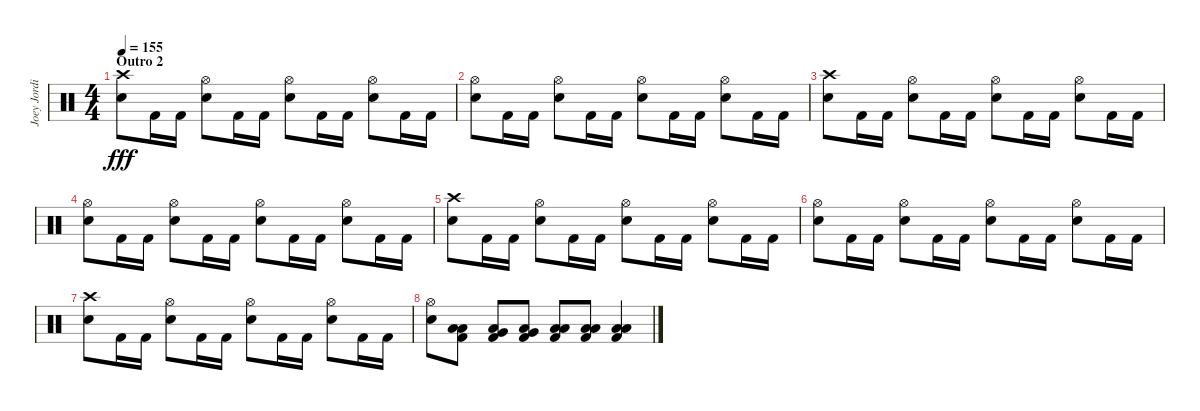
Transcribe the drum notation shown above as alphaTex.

\track ("Joey Jordison" "Joey Jordi") {instrument percussion}
\staff {score}
\articulation defaults
\ts (4 4)
\section ("" "Outro 2")
\tempo 155
\clef neutral
\ks c
("Crash high (hit)" "Electric Snare (hit)").8{dy fff} "Kick (hit) 2".16 "Kick (hit) 2".16 ("Hi-Hat (open)" "Electric Snare (hit)").8 "Kick (hit) 2".16 "Kick (hit) 2".16 ("Hi-Hat (open)" "Electric Snare (hit)").8 "Kick (hit) 2".16 "Kick (hit) 2".16 ("Hi-Hat (open)" "Electric Snare (hit)").8 "Kick (hit) 2".16 "Kick (hit) 2".16 |
("Hi-Hat (open)" "Electric Snare (hit)").8 "Kick (hit) 2".16 "Kick (hit) 2".16 ("Hi-Hat (open)" "Electric Snare (hit)").8 "Kick (hit) 2".16 "Kick (hit) 2".16 ("Hi-Hat (open)" "Electric Snare (hit)").8 "Kick (hit) 2".16 "Kick (hit) 2".16 ("Hi-Hat (open)" "Electric Snare (hit)").8 "Kick (hit) 2".16 "Kick (hit) 2".16 |
("Crash high (hit)" "Electric Snare (hit)").8 "Kick (hit) 2".16 "Kick (hit) 2".16 ("Hi-Hat (open)" "Electric Snare (hit)").8 "Kick (hit) 2".16 "Kick (hit) 2".16 ("Hi-Hat (open)" "Electric Snare (hit)").8 "Kick (hit) 2".16 "Kick (hit) 2".16 ("Hi-Hat (open)" "Electric Snare (hit)").8 "Kick (hit) 2".16 "Kick (hit) 2".16 |
("Hi-Hat (open)" "Electric Snare (hit)").8 "Kick (hit) 2".16 "Kick (hit) 2".16 ("Hi-Hat (open)" "Electric Snare (hit)").8 "Kick (hit) 2".16 "Kick (hit) 2".16 ("Hi-Hat (open)" "Electric Snare (hit)").8 "Kick (hit) 2".16 "Kick (hit) 2".16 ("Hi-Hat (open)" "Electric Snare (hit)").8 "Kick (hit) 2".16 "Kick (hit) 2".16 |
("Crash high (hit)" "Electric Snare (hit)").8 "Kick (hit) 2".16 "Kick (hit) 2".16 ("Hi-Hat (open)" "Electric Snare (hit)").8 "Kick (hit) 2".16 "Kick (hit) 2".16 ("Hi-Hat (open)" "Electric Snare (hit)").8 "Kick (hit) 2".16 "Kick (hit) 2".16 ("Hi-Hat (open)" "Electric Snare (hit)").8 "Kick (hit) 2".16 "Kick (hit) 2".16 |
("Hi-Hat (open)" "Electric Snare (hit)").8 "Kick (hit) 2".16 "Kick (hit) 2".16 ("Hi-Hat (open)" "Electric Snare (hit)").8 "Kick (hit) 2".16 "Kick (hit) 2".16 ("Hi-Hat (open)" "Electric Snare (hit)").8 "Kick (hit) 2".16 "Kick (hit) 2".16 ("Hi-Hat (open)" "Electric Snare (hit)").8 "Kick (hit) 2".16 "Kick (hit) 2".16 |
("Crash high (hit)" "Electric Snare (hit)").8 "Kick (hit) 2".16 "Kick (hit) 2".16 ("Hi-Hat (open)" "Electric Snare (hit)").8 "Kick (hit) 2".16 "Kick (hit) 2".16 ("Hi-Hat (open)" "Electric Snare (hit)").8 "Kick (hit) 2".16 "Kick (hit) 2".16 ("Hi-Hat (open)" "Electric Snare (hit)").8 "Kick (hit) 2".16 "Kick (hit) 2".16 |
("Hi-Hat (open)" "Electric Snare (hit)").8 ("Low Tom (hit)" "Low Floor Tom (hit)" "Kick (hit) 2").8 ("Very Low Tom (hit)" "Low Floor Tom (hit)" "Kick (hit) 2").8 ("Very Low Tom (hit)" "Low Floor Tom (hit)" "Kick (hit) 2").8 ("Low Floor Tom (hit)" "Low Floor Tom (hit)" "Kick (hit) 2").8 ("Low Floor Tom (hit)" "Low Floor Tom (hit)" "Kick (hit) 2").8 ("Low Floor Tom (hit)" "Low Floor Tom (hit)" "Kick (hit) 2").4
